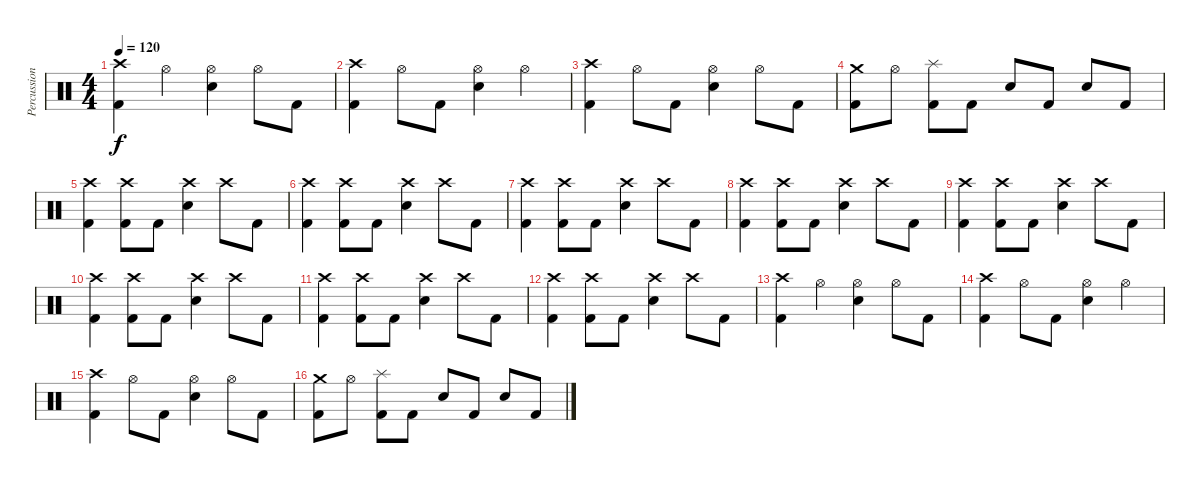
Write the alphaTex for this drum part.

\track ("Percussions" "Percussion") {instrument percussion}
\staff {score}
\articulation defaults
\ts (4 4)
\tempo 120
\clef neutral
\ks c
("Crash high (hit)" "Kick (hit) 2").4{dy f} "Hi-Hat (open)".4 ("Hi-Hat (open)" "Electric Snare (hit)").4 "Hi-Hat (open)".8 "Kick (hit) 2".8 |
("Crash high (hit)" "Kick (hit) 2").4 "Hi-Hat (open)".8 "Kick (hit) 2".8 ("Hi-Hat (open)" "Electric Snare (hit)").4 "Hi-Hat (open)".4 |
("Crash high (hit)" "Kick (hit) 2").4 "Hi-Hat (open)".8 "Kick (hit) 2".8 ("Hi-Hat (open)" "Electric Snare (hit)").4 "Hi-Hat (open)".8 "Kick (hit) 2".8 |
("Crash medium (hit)" "Kick (hit) 2").8 "Hi-Hat (open)".8 ("Splash (hit)" "Kick (hit) 2").8 "Kick (hit) 2".8 "Electric Snare (hit)".8 "Kick (hit) 2".8 "Electric Snare (hit)".8 "Kick (hit) 2".8 |
("Crash high (hit)" "Kick (hit) 2").4 ("Crash high (hit)" "Kick (hit) 2").8 "Kick (hit) 2".8 ("Crash high (hit)" "Electric Snare (hit)").4 "Crash high (hit)".8 "Kick (hit) 2".8 |
("Crash high (hit)" "Kick (hit) 2").4 ("Crash high (hit)" "Kick (hit) 2").8 "Kick (hit) 2".8 ("Crash high (hit)" "Electric Snare (hit)").4 "Crash high (hit)".8 "Kick (hit) 2".8 |
("Crash high (hit)" "Kick (hit) 2").4 ("Crash high (hit)" "Kick (hit) 2").8 "Kick (hit) 2".8 ("Crash high (hit)" "Electric Snare (hit)").4 "Crash high (hit)".8 "Kick (hit) 2".8 |
("Crash high (hit)" "Kick (hit) 2").4 ("Crash high (hit)" "Kick (hit) 2").8 "Kick (hit) 2".8 ("Crash high (hit)" "Electric Snare (hit)").4 "Crash high (hit)".8 "Kick (hit) 2".8 |
("Crash high (hit)" "Kick (hit) 2").4 ("Crash high (hit)" "Kick (hit) 2").8 "Kick (hit) 2".8 ("Crash high (hit)" "Electric Snare (hit)").4 "Crash high (hit)".8 "Kick (hit) 2".8 |
("Crash high (hit)" "Kick (hit) 2").4 ("Crash high (hit)" "Kick (hit) 2").8 "Kick (hit) 2".8 ("Crash high (hit)" "Electric Snare (hit)").4 "Crash high (hit)".8 "Kick (hit) 2".8 |
("Crash high (hit)" "Kick (hit) 2").4 ("Crash high (hit)" "Kick (hit) 2").8 "Kick (hit) 2".8 ("Crash high (hit)" "Electric Snare (hit)").4 "Crash high (hit)".8 "Kick (hit) 2".8 |
("Crash high (hit)" "Kick (hit) 2").4 ("Crash high (hit)" "Kick (hit) 2").8 "Kick (hit) 2".8 ("Crash high (hit)" "Electric Snare (hit)").4 "Crash high (hit)".8 "Kick (hit) 2".8 |
("Crash high (hit)" "Kick (hit) 2").4 "Hi-Hat (open)".4 ("Hi-Hat (open)" "Electric Snare (hit)").4 "Hi-Hat (open)".8 "Kick (hit) 2".8 |
("Crash high (hit)" "Kick (hit) 2").4 "Hi-Hat (open)".8 "Kick (hit) 2".8 ("Hi-Hat (open)" "Electric Snare (hit)").4 "Hi-Hat (open)".4 |
("Crash high (hit)" "Kick (hit) 2").4 "Hi-Hat (open)".8 "Kick (hit) 2".8 ("Hi-Hat (open)" "Electric Snare (hit)").4 "Hi-Hat (open)".8 "Kick (hit) 2".8 |
("Crash medium (hit)" "Kick (hit) 2").8 "Hi-Hat (open)".8 ("Splash (hit)" "Kick (hit) 2").8 "Kick (hit) 2".8 "Electric Snare (hit)".8 "Kick (hit) 2".8 "Electric Snare (hit)".8 "Kick (hit) 2".8
